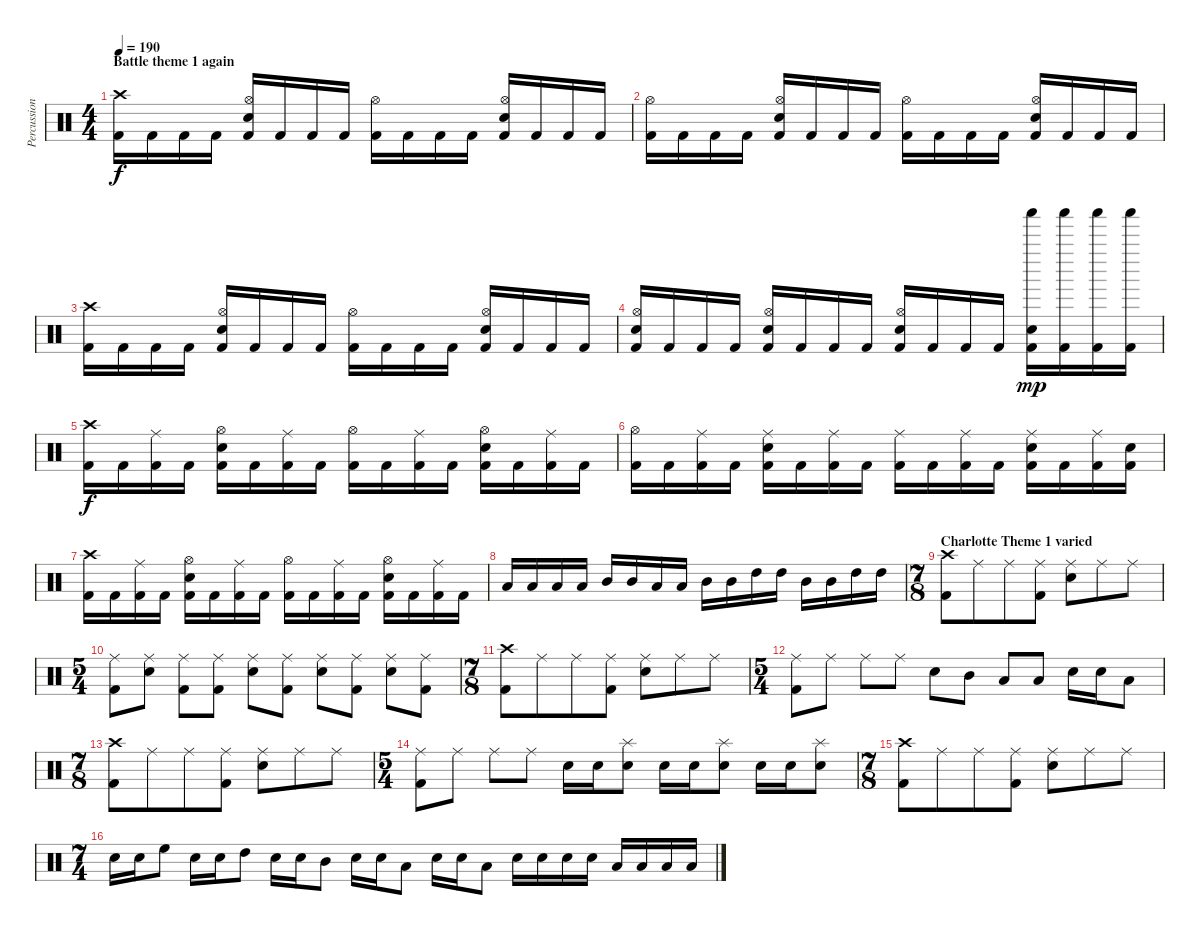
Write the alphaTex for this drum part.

\track ("Percussion" "Percussion") {instrument percussion}
\staff {score}
\articulation defaults
\ts (4 4)
\section ("" "Battle theme 1 again")
\tempo 190
\clef neutral
\ks c
("Crash high (hit)" "Kick (hit) 2").16{dy f} "Kick (hit) 2".16 "Kick (hit) 2".16 "Kick (hit) 2".16 ("Hi-Hat (open)" "Electric Snare (hit)" "Kick (hit) 2").16 "Kick (hit) 2".16 "Kick (hit) 2".16 "Kick (hit) 2".16 ("Hi-Hat (open)" "Kick (hit) 2").16 "Kick (hit) 2".16 "Kick (hit) 2".16 "Kick (hit) 2".16 ("Hi-Hat (open)" "Electric Snare (hit)" "Kick (hit) 2").16 "Kick (hit) 2".16 "Kick (hit) 2".16 "Kick (hit) 2".16 |
("Hi-Hat (open)" "Kick (hit) 2").16 "Kick (hit) 2".16 "Kick (hit) 2".16 "Kick (hit) 2".16 ("Hi-Hat (open)" "Electric Snare (hit)" "Kick (hit) 2").16 "Kick (hit) 2".16 "Kick (hit) 2".16 "Kick (hit) 2".16 ("Hi-Hat (open)" "Kick (hit) 2").16 "Kick (hit) 2".16 "Kick (hit) 2".16 "Kick (hit) 2".16 ("Hi-Hat (open)" "Electric Snare (hit)" "Kick (hit) 2").16 "Kick (hit) 2".16 "Kick (hit) 2".16 "Kick (hit) 2".16 |
("Crash high (hit)" "Kick (hit) 2").16 "Kick (hit) 2".16 "Kick (hit) 2".16 "Kick (hit) 2".16 ("Hi-Hat (open)" "Electric Snare (hit)" "Kick (hit) 2").16 "Kick (hit) 2".16 "Kick (hit) 2".16 "Kick (hit) 2".16 ("Hi-Hat (open)" "Kick (hit) 2").16 "Kick (hit) 2".16 "Kick (hit) 2".16 "Kick (hit) 2".16 ("Hi-Hat (open)" "Electric Snare (hit)" "Kick (hit) 2").16 "Kick (hit) 2".16 "Kick (hit) 2".16 "Kick (hit) 2".16 |
("Hi-Hat (open)" "Electric Snare (hit)" "Kick (hit) 2").16 "Kick (hit) 2".16 "Kick (hit) 2".16 "Kick (hit) 2".16 ("Hi-Hat (open)" "Electric Snare (hit)" "Kick (hit) 2").16 "Kick (hit) 2".16 "Kick (hit) 2".16 "Kick (hit) 2".16 ("Hi-Hat (open)" "Electric Snare (hit)" "Kick (hit) 2").16 "Kick (hit) 2".16 "Kick (hit) 2".16 "Kick (hit) 2".16 ("Shaker (hit)" "Electric Snare (hit)" "Kick (hit) 2").16{dy mp} ("Shaker (hit)" "Kick (hit) 2").16 ("Shaker (hit)" "Kick (hit) 2").16 ("Shaker (hit)" "Kick (hit) 2").16 |
("Crash high (hit)" "Kick (hit) 2").16{dy f} "Kick (hit) 2".16 ("Ride (middle)" "Kick (hit) 2").16 "Kick (hit) 2".16 ("Hi-Hat (open)" "Electric Snare (hit)" "Kick (hit) 2").16 "Kick (hit) 2".16 ("Ride (middle)" "Kick (hit) 2").16 "Kick (hit) 2".16 ("Hi-Hat (open)" "Kick (hit) 2").16 "Kick (hit) 2".16 ("Ride (middle)" "Kick (hit) 2").16 "Kick (hit) 2".16 ("Hi-Hat (open)" "Electric Snare (hit)" "Kick (hit) 2").16 "Kick (hit) 2".16 ("Ride (middle)" "Kick (hit) 2").16 "Kick (hit) 2".16 |
("Hi-Hat (open)" "Kick (hit) 2").16 "Kick (hit) 2".16 ("Ride (middle)" "Kick (hit) 2").16 "Kick (hit) 2".16 ("Ride (middle)" "Electric Snare (hit)" "Kick (hit) 2").16 "Kick (hit) 2".16 ("Ride (middle)" "Kick (hit) 2").16 "Kick (hit) 2".16 ("Ride (middle)" "Kick (hit) 2").16 "Kick (hit) 2".16 ("Ride (middle)" "Kick (hit) 2").16 "Kick (hit) 2".16 ("Ride (middle)" "Electric Snare (hit)" "Kick (hit) 2").16 "Kick (hit) 2".16 ("Ride (middle)" "Kick (hit) 2").16 ("Electric Snare (hit)" "Kick (hit) 2").16 |
("Crash high (hit)" "Kick (hit) 2").16 "Kick (hit) 2".16 ("Ride (middle)" "Kick (hit) 2").16 "Kick (hit) 2".16 ("Hi-Hat (open)" "Electric Snare (hit)" "Kick (hit) 2").16 "Kick (hit) 2".16 ("Ride (middle)" "Kick (hit) 2").16 "Kick (hit) 2".16 ("Hi-Hat (open)" "Kick (hit) 2").16 "Kick (hit) 2".16 ("Ride (middle)" "Kick (hit) 2").16 "Kick (hit) 2".16 ("Hi-Hat (open)" "Electric Snare (hit)" "Kick (hit) 2").16 "Kick (hit) 2".16 ("Ride (middle)" "Kick (hit) 2").16 "Kick (hit) 2".16 |
"Low Floor Tom (hit)".16 "Low Floor Tom (hit)".16 "Low Tom (hit)".16 "Low Tom (hit)".16 "Mid Tom (hit)".16 "Mid Tom (hit)".16 "Low Tom (hit)".16 "Low Tom (hit)".16 "Mid Tom (hit)".16 "Mid Tom (hit)".16 "High Tom (hit)".16 "High Tom (hit)".16 "Mid Tom (hit)".16 "Mid Tom (hit)".16 "High Tom (hit)".16 "High Tom (hit)".16 |
\ts (7 8)
\section ("" "Charlotte Theme 1 varied")
("Crash high (hit)" "Kick (hit) 2").8 "Ride (middle)".8 "Ride (middle)".8 ("Ride (middle)" "Kick (hit) 2").8 ("Ride (middle)" "Electric Snare (hit)").8 "Ride (middle)".8 "Ride (middle)".8 |
\ts (5 4)
("Ride (middle)" "Kick (hit) 2").8 ("Ride (middle)" "Electric Snare (hit)").8 ("Ride (middle)" "Kick (hit) 2").8 ("Ride (middle)" "Kick (hit) 2").8 ("Ride (middle)" "Electric Snare (hit)").8 ("Ride (middle)" "Kick (hit) 2").8 ("Ride (middle)" "Electric Snare (hit)").8 ("Ride (middle)" "Kick (hit) 2").8 ("Ride (middle)" "Electric Snare (hit)").8 ("Ride (middle)" "Kick (hit) 2").8 |
\ts (7 8)
("Crash high (hit)" "Kick (hit) 2").8 "Ride (middle)".8 "Ride (middle)".8 ("Ride (middle)" "Kick (hit) 2").8 ("Ride (middle)" "Electric Snare (hit)").8 "Ride (middle)".8 "Ride (middle)".8 |
\ts (5 4)
("Ride (middle)" "Kick (hit) 2").8 "Ride (middle)".8 "Ride (middle)".8 "Ride (middle)".8 "Electric Snare (hit)".8 "Mid Tom (hit)".8 "Low Tom (hit)".8 "Low Tom (hit)".8 "Electric Snare (hit)".16 "Electric Snare (hit)".16 "Low Floor Tom (hit)".8 |
\ts (7 8)
("Crash high (hit)" "Kick (hit) 2").8 "Ride (middle)".8 "Ride (middle)".8 ("Ride (middle)" "Kick (hit) 2").8 ("Ride (middle)" "Electric Snare (hit)").8 "Ride (middle)".8 "Ride (middle)".8 |
\ts (5 4)
("Ride (middle)" "Kick (hit) 2").8 "Ride (middle)".8 "Ride (middle)".8 "Ride (middle)".8 "Electric Snare (hit)".16 "Electric Snare (hit)".16 ("Splash (hit)" "Electric Snare (hit)").8 "Electric Snare (hit)".16 "Electric Snare (hit)".16 ("Splash (hit)" "Electric Snare (hit)").8 "Electric Snare (hit)".16 "Electric Snare (hit)".16 ("Splash (hit)" "Electric Snare (hit)").8 |
\ts (7 8)
("Crash high (hit)" "Kick (hit) 2").8 "Ride (middle)".8 "Ride (middle)".8 ("Ride (middle)" "Kick (hit) 2").8 ("Ride (middle)" "Electric Snare (hit)").8 "Ride (middle)".8 "Ride (middle)".8 |
\ts (7 4)
"Electric Snare (hit)".16 "Electric Snare (hit)".16 "High Floor Tom (hit)".8 "Electric Snare (hit)".16 "Electric Snare (hit)".16 "High Tom (hit)".8 "Electric Snare (hit)".16 "Electric Snare (hit)".16 "Mid Tom (hit)".8 "Electric Snare (hit)".16 "Electric Snare (hit)".16 "Low Tom (hit)".8 "Electric Snare (hit)".16 "Electric Snare (hit)".16 "Low Floor Tom (hit)".8 "Electric Snare (hit)".16 "Electric Snare (hit)".16 "Electric Snare (hit)".16 "Electric Snare (hit)".16 "Low Tom (hit)".16 "Low Tom (hit)".16 "Low Tom (hit)".16 "Low Tom (hit)".16
